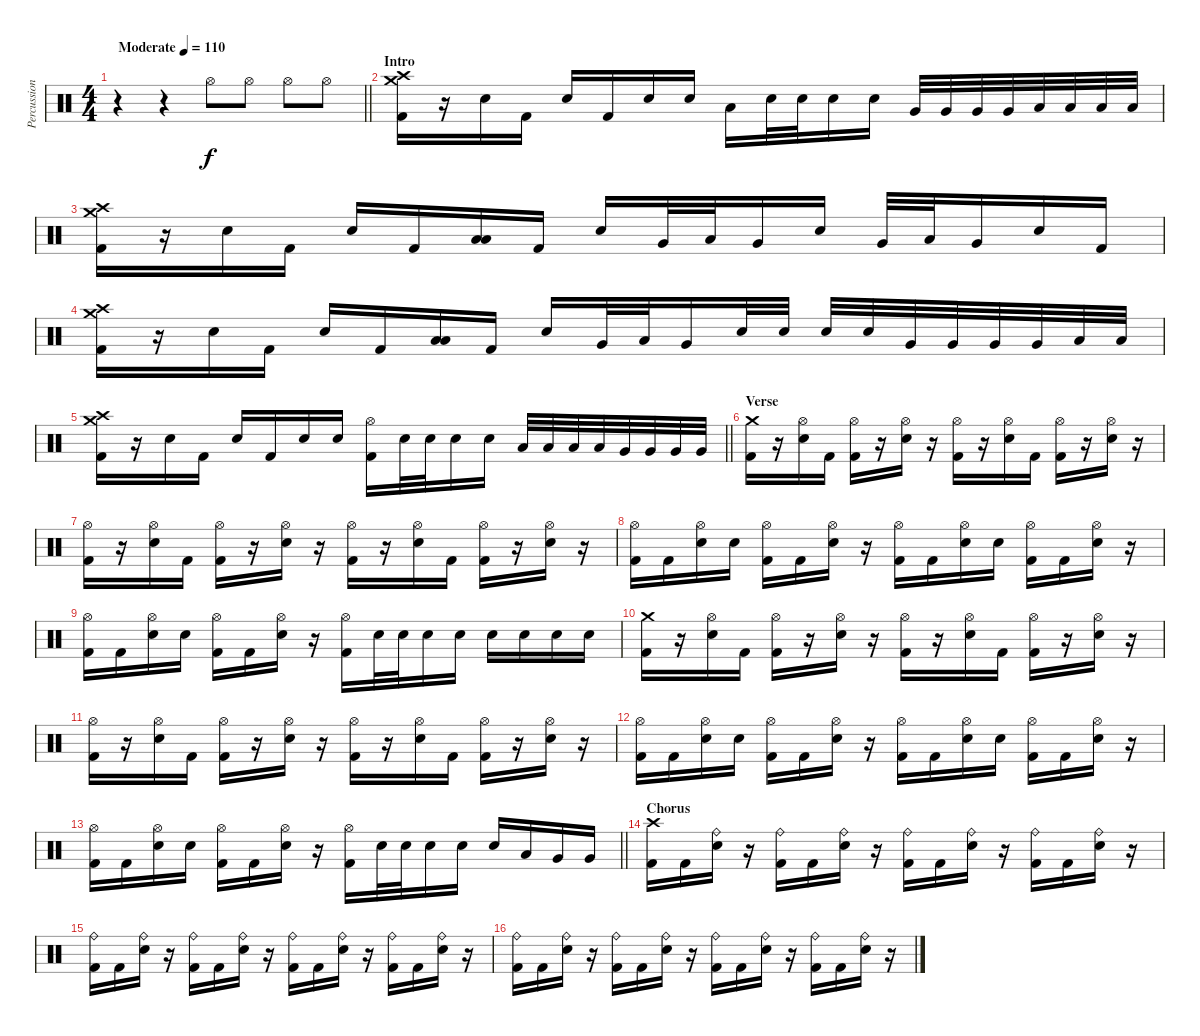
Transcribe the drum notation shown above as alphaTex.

\track ("Percussion" "Percussion") {instrument percussion}
\staff {score}
\articulation defaults
\ts (4 4)
\tempo (110 "Moderate")
\clef neutral
\barLineRight lightlight
\ks c
r.4{dy f} r.4 "Hi-Hat (open)".8 "Hi-Hat (open)".8 "Hi-Hat (open)".8 "Hi-Hat (open)".8 |
\section ("" "Intro")
("Crash medium (hit)" "Crash high (hit)" "Kick (hit) 2").16 r.16 "Electric Snare (hit)".16 "Kick (hit) 2".16 "Electric Snare (hit)".16 "Kick (hit) 2".16 "Electric Snare (hit)".16 "Electric Snare (hit)".16 "Low Tom (hit)".16 "Electric Snare (hit)".32 "Electric Snare (hit)".32 "Electric Snare (hit)".16 "Electric Snare (hit)".16 "Very Low Tom (hit)".32 "Very Low Tom (hit)".32 "Very Low Tom (hit)".32 "Very Low Tom (hit)".32 "Low Floor Tom (hit)".32 "Low Floor Tom (hit)".32 "Low Floor Tom (hit)".32 "Low Floor Tom (hit)".32 |
("Crash medium (hit)" "Crash high (hit)" "Kick (hit) 2").16 r.16 "Electric Snare (hit)".16 "Kick (hit) 2".16 "Electric Snare (hit)".16 "Kick (hit) 2".16 ("Low Tom (hit)" "Low Floor Tom (hit)").16 "Kick (hit) 2".16 "Electric Snare (hit)".16 "Very Low Tom (hit)".32 "Low Tom (hit)".32 "Very Low Tom (hit)".16 "Electric Snare (hit)".16 "Very Low Tom (hit)".32 "Low Tom (hit)".32 "Very Low Tom (hit)".16 "Electric Snare (hit)".16 "Kick (hit) 2".16 |
("Crash medium (hit)" "Crash high (hit)" "Kick (hit) 2").16 r.16 "Electric Snare (hit)".16 "Kick (hit) 2".16 "Electric Snare (hit)".16 "Kick (hit) 2".16 ("Low Tom (hit)" "Low Floor Tom (hit)").16 "Kick (hit) 2".16 "Electric Snare (hit)".16 "Very Low Tom (hit)".32 "Low Tom (hit)".32 "Very Low Tom (hit)".16 "Electric Snare (hit)".32 "Electric Snare (hit)".32 "Electric Snare (hit)".32 "Electric Snare (hit)".32 "Very Low Tom (hit)".32 "Very Low Tom (hit)".32 "Very Low Tom (hit)".32 "Very Low Tom (hit)".32 "Low Floor Tom (hit)".32 "Low Floor Tom (hit)".32 |
\barLineRight lightlight
("Crash medium (hit)" "Crash high (hit)" "Kick (hit) 2").16 r.16 "Electric Snare (hit)".16 "Kick (hit) 2".16 "Electric Snare (hit)".16 "Kick (hit) 2".16 "Electric Snare (hit)".16 "Electric Snare (hit)".16 ("Hi-Hat (open)" "Kick (hit) 2").16 "Electric Snare (hit)".32 "Electric Snare (hit)".32 "Electric Snare (hit)".16 "Electric Snare (hit)".16 "Low Tom (hit)".32 "Low Tom (hit)".32 "Low Tom (hit)".32 "Low Tom (hit)".32 "Very Low Tom (hit)".32 "Very Low Tom (hit)".32 "Very Low Tom (hit)".32 "Very Low Tom (hit)".32 |
\section ("" "Verse")
("Crash medium (hit)" "Kick (hit) 2").16 r.16 ("Hi-Hat (open)" "Electric Snare (hit)").16 "Kick (hit) 2".16 ("Hi-Hat (open)" "Kick (hit) 2").16 r.16 ("Hi-Hat (open)" "Electric Snare (hit)").16 r.16 ("Hi-Hat (open)" "Kick (hit) 2").16 r.16 ("Hi-Hat (open)" "Electric Snare (hit)").16 "Kick (hit) 2".16 ("Hi-Hat (open)" "Kick (hit) 2").16 r.16 ("Hi-Hat (open)" "Electric Snare (hit)").16 r.16 |
("Hi-Hat (open)" "Kick (hit) 2").16 r.16 ("Hi-Hat (open)" "Electric Snare (hit)").16 "Kick (hit) 2".16 ("Hi-Hat (open)" "Kick (hit) 2").16 r.16 ("Hi-Hat (open)" "Electric Snare (hit)").16 r.16 ("Hi-Hat (open)" "Kick (hit) 2").16 r.16 ("Hi-Hat (open)" "Electric Snare (hit)").16 "Kick (hit) 2".16 ("Hi-Hat (open)" "Kick (hit) 2").16 r.16 ("Hi-Hat (open)" "Electric Snare (hit)").16 r.16 |
("Hi-Hat (open)" "Kick (hit) 2").16 "Kick (hit) 2".16 ("Hi-Hat (open)" "Electric Snare (hit)").16 "Electric Snare (hit)".16 ("Hi-Hat (open)" "Kick (hit) 2").16 "Kick (hit) 2".16 ("Hi-Hat (open)" "Electric Snare (hit)").16 r.16 ("Hi-Hat (open)" "Kick (hit) 2").16 "Kick (hit) 2".16 ("Hi-Hat (open)" "Electric Snare (hit)").16 "Electric Snare (hit)".16 ("Hi-Hat (open)" "Kick (hit) 2").16 "Kick (hit) 2".16 ("Hi-Hat (open)" "Electric Snare (hit)").16 r.16 |
("Hi-Hat (open)" "Kick (hit) 2").16 "Kick (hit) 2".16 ("Hi-Hat (open)" "Electric Snare (hit)").16 "Electric Snare (hit)".16 ("Hi-Hat (open)" "Kick (hit) 2").16 "Kick (hit) 2".16 ("Hi-Hat (open)" "Electric Snare (hit)").16 r.16 ("Hi-Hat (open)" "Kick (hit) 2").16 "Electric Snare (hit)".32 "Electric Snare (hit)".32 "Electric Snare (hit)".16 "Electric Snare (hit)".16 "Electric Snare (hit)".16 "Electric Snare (hit)".16 "Electric Snare (hit)".16 "Electric Snare (hit)".16 |
("Crash medium (hit)" "Kick (hit) 2").16 r.16 ("Hi-Hat (open)" "Electric Snare (hit)").16 "Kick (hit) 2".16 ("Hi-Hat (open)" "Kick (hit) 2").16 r.16 ("Hi-Hat (open)" "Electric Snare (hit)").16 r.16 ("Hi-Hat (open)" "Kick (hit) 2").16 r.16 ("Hi-Hat (open)" "Electric Snare (hit)").16 "Kick (hit) 2".16 ("Hi-Hat (open)" "Kick (hit) 2").16 r.16 ("Hi-Hat (open)" "Electric Snare (hit)").16 r.16 |
("Hi-Hat (open)" "Kick (hit) 2").16 r.16 ("Hi-Hat (open)" "Electric Snare (hit)").16 "Kick (hit) 2".16 ("Hi-Hat (open)" "Kick (hit) 2").16 r.16 ("Hi-Hat (open)" "Electric Snare (hit)").16 r.16 ("Hi-Hat (open)" "Kick (hit) 2").16 r.16 ("Hi-Hat (open)" "Electric Snare (hit)").16 "Kick (hit) 2".16 ("Hi-Hat (open)" "Kick (hit) 2").16 r.16 ("Hi-Hat (open)" "Electric Snare (hit)").16 r.16 |
("Hi-Hat (open)" "Kick (hit) 2").16 "Kick (hit) 2".16 ("Hi-Hat (open)" "Electric Snare (hit)").16 "Electric Snare (hit)".16 ("Hi-Hat (open)" "Kick (hit) 2").16 "Kick (hit) 2".16 ("Hi-Hat (open)" "Electric Snare (hit)").16 r.16 ("Hi-Hat (open)" "Kick (hit) 2").16 "Kick (hit) 2".16 ("Hi-Hat (open)" "Electric Snare (hit)").16 "Electric Snare (hit)".16 ("Hi-Hat (open)" "Kick (hit) 2").16 "Kick (hit) 2".16 ("Hi-Hat (open)" "Electric Snare (hit)").16 r.16 |
\barLineRight lightlight
("Hi-Hat (open)" "Kick (hit) 2").16 "Kick (hit) 2".16 ("Hi-Hat (open)" "Electric Snare (hit)").16 "Electric Snare (hit)".16 ("Hi-Hat (open)" "Kick (hit) 2").16 "Kick (hit) 2".16 ("Hi-Hat (open)" "Electric Snare (hit)").16 r.16 ("Hi-Hat (open)" "Kick (hit) 2").16 "Electric Snare (hit)".32 "Electric Snare (hit)".32 "Electric Snare (hit)".16 "Electric Snare (hit)".16 "Electric Snare (hit)".16 "Low Tom (hit)".16 "Very Low Tom (hit)".16 "Very Low Tom (hit)".16 |
\section ("" "Chorus")
("Crash high (hit)" "Kick (hit) 2").16 "Kick (hit) 2".16 ("Ride (bell)" "Electric Snare (hit)").16 r.16 ("Ride (bell)" "Kick (hit) 2").16 "Kick (hit) 2".16 ("Ride (bell)" "Electric Snare (hit)").16 r.16 ("Ride (bell)" "Kick (hit) 2").16 "Kick (hit) 2".16 ("Ride (bell)" "Electric Snare (hit)").16 r.16 ("Ride (bell)" "Kick (hit) 2").16 "Kick (hit) 2".16 ("Ride (bell)" "Electric Snare (hit)").16 r.16 |
("Ride (bell)" "Kick (hit) 2").16 "Kick (hit) 2".16 ("Ride (bell)" "Electric Snare (hit)").16 r.16 ("Ride (bell)" "Kick (hit) 2").16 "Kick (hit) 2".16 ("Ride (bell)" "Electric Snare (hit)").16 r.16 ("Ride (bell)" "Kick (hit) 2").16 "Kick (hit) 2".16 ("Ride (bell)" "Electric Snare (hit)").16 r.16 ("Ride (bell)" "Kick (hit) 2").16 "Kick (hit) 2".16 ("Ride (bell)" "Electric Snare (hit)").16 r.16 |
("Ride (bell)" "Kick (hit) 2").16 "Kick (hit) 2".16 ("Ride (bell)" "Electric Snare (hit)").16 r.16 ("Ride (bell)" "Kick (hit) 2").16 "Kick (hit) 2".16 ("Ride (bell)" "Electric Snare (hit)").16 r.16 ("Ride (bell)" "Kick (hit) 2").16 "Kick (hit) 2".16 ("Ride (bell)" "Electric Snare (hit)").16 r.16 ("Ride (bell)" "Kick (hit) 2").16 "Kick (hit) 2".16 ("Ride (bell)" "Electric Snare (hit)").16 r.16
